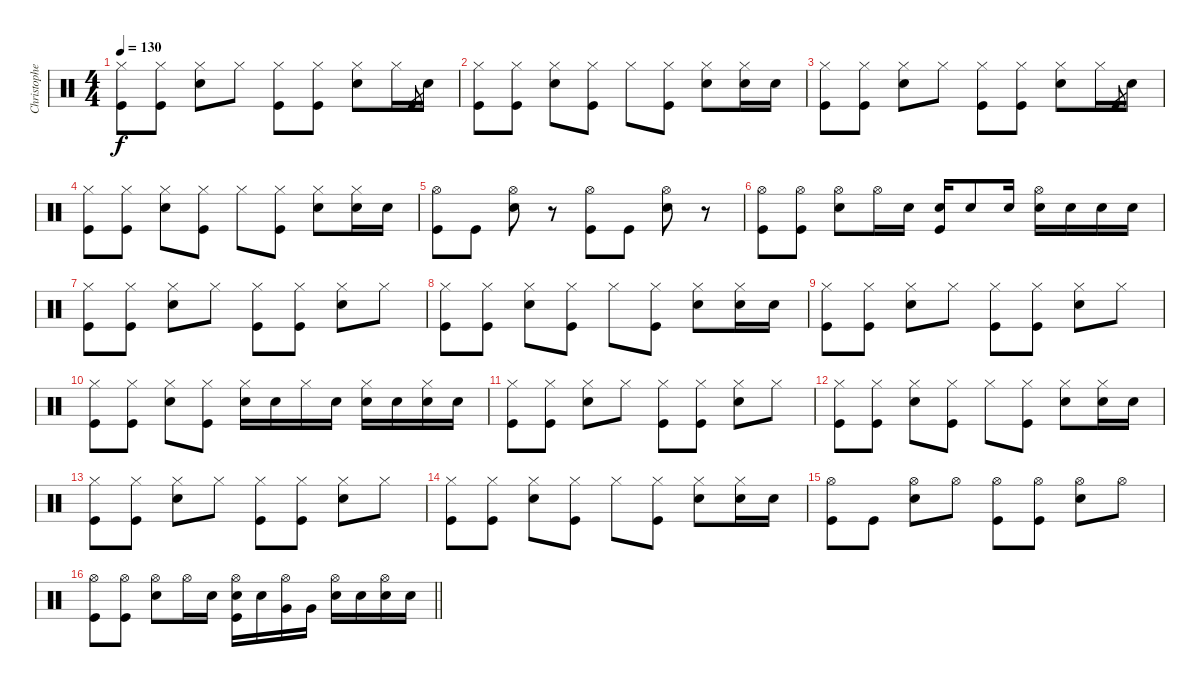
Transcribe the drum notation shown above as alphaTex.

\track ("Christopher - Drums" "Christophe") {instrument percussion}
\staff {score}
\articulation defaults
\ts (4 4)
\tempo 130
\clef neutral
\ks c
("Hi-Hat (closed)" "Kick (hit)").8{dy f} ("Hi-Hat (closed)" "Kick (hit)").8 ("Hi-Hat (closed)" "Snare (hit) 2").8 "Hi-Hat (closed)".8 ("Hi-Hat (closed)" "Kick (hit)").8 ("Hi-Hat (closed)" "Kick (hit)").8 ("Hi-Hat (closed)" "Snare (hit) 2").8 "Hi-Hat (closed)".16 "Kick (hit)".8{gr} "Snare (hit) 2".16 |
("Hi-Hat (closed)" "Kick (hit)").8 ("Hi-Hat (closed)" "Kick (hit)").8 ("Hi-Hat (closed)" "Snare (hit) 2").8 ("Hi-Hat (closed)" "Kick (hit)").8 "Hi-Hat (closed)".8 ("Hi-Hat (closed)" "Kick (hit)").8 ("Hi-Hat (closed)" "Snare (hit) 2").8 ("Hi-Hat (closed)" "Snare (hit) 2").16 "Snare (hit) 2".16 |
("Hi-Hat (closed)" "Kick (hit)").8 ("Hi-Hat (closed)" "Kick (hit)").8 ("Hi-Hat (closed)" "Snare (hit) 2").8 "Hi-Hat (closed)".8 ("Hi-Hat (closed)" "Kick (hit)").8 ("Hi-Hat (closed)" "Kick (hit)").8 ("Hi-Hat (closed)" "Snare (hit) 2").8 "Hi-Hat (closed)".16 "Kick (hit)".8{gr} "Snare (hit) 2".16 |
("Hi-Hat (closed)" "Kick (hit)").8 ("Hi-Hat (closed)" "Kick (hit)").8 ("Hi-Hat (closed)" "Snare (hit) 2").8 ("Hi-Hat (closed)" "Kick (hit)").8 "Hi-Hat (closed)".8 ("Hi-Hat (closed)" "Kick (hit)").8 ("Hi-Hat (closed)" "Snare (hit) 2").8 ("Hi-Hat (closed)" "Snare (hit) 2").16 "Snare (hit) 2".16 |
("Hi-Hat (open)" "Kick (hit)").8 "Kick (hit)".8 ("Hi-Hat (open)" "Snare (hit) 2").8 r.8 ("Hi-Hat (open)" "Kick (hit)").8 "Kick (hit)".8 ("Hi-Hat (open)" "Snare (hit) 2").8 r.8 |
("Hi-Hat (open)" "Kick (hit)").8 ("Hi-Hat (open)" "Kick (hit)").8 ("Hi-Hat (open)" "Snare (hit) 2").8 "Hi-Hat (open)".16 "Snare (hit) 2".16 ("Snare (hit) 2" "Kick (hit)").16 "Snare (hit) 2".8 "Snare (hit) 2".16 ("Hi-Hat (open)" "Snare (hit) 2").16 "Snare (hit) 2".16 "Snare (hit) 2".16 "Snare (hit) 2".16 |
("Hi-Hat (closed)" "Kick (hit)").8 ("Hi-Hat (closed)" "Kick (hit)").8 ("Hi-Hat (closed)" "Snare (hit) 2").8 "Hi-Hat (closed)".8 ("Hi-Hat (closed)" "Kick (hit)").8 ("Hi-Hat (closed)" "Kick (hit)").8 ("Hi-Hat (closed)" "Snare (hit) 2").8 "Hi-Hat (closed)".8 |
("Hi-Hat (closed)" "Kick (hit)").8 ("Hi-Hat (closed)" "Kick (hit)").8 ("Hi-Hat (closed)" "Snare (hit) 2").8 ("Hi-Hat (closed)" "Kick (hit)").8 "Hi-Hat (closed)".8 ("Hi-Hat (closed)" "Kick (hit)").8 ("Hi-Hat (closed)" "Snare (hit) 2").8 ("Hi-Hat (closed)" "Snare (hit) 2").16 "Snare (hit) 2".16 |
("Hi-Hat (closed)" "Kick (hit)").8 ("Hi-Hat (closed)" "Kick (hit)").8 ("Hi-Hat (closed)" "Snare (hit) 2").8 "Hi-Hat (closed)".8 ("Hi-Hat (closed)" "Kick (hit)").8 ("Hi-Hat (closed)" "Kick (hit)").8 ("Hi-Hat (closed)" "Snare (hit) 2").8 "Hi-Hat (closed)".8 |
("Hi-Hat (closed)" "Kick (hit)").8 ("Hi-Hat (closed)" "Kick (hit)").8 ("Hi-Hat (closed)" "Snare (hit) 2").8 ("Hi-Hat (closed)" "Kick (hit)").8 ("Hi-Hat (closed)" "Snare (hit) 2").16 "Snare (hit) 2".16 "Hi-Hat (closed)".16 "Snare (hit) 2".16 ("Hi-Hat (closed)" "Snare (hit) 2").16 "Snare (hit) 2".16 ("Hi-Hat (closed)" "Snare (hit) 2").16 "Snare (hit) 2".16 |
("Hi-Hat (closed)" "Kick (hit)").8 ("Hi-Hat (closed)" "Kick (hit)").8 ("Hi-Hat (closed)" "Snare (hit) 2").8 "Hi-Hat (closed)".8 ("Hi-Hat (closed)" "Kick (hit)").8 ("Hi-Hat (closed)" "Kick (hit)").8 ("Hi-Hat (closed)" "Snare (hit) 2").8 "Hi-Hat (closed)".8 |
("Hi-Hat (closed)" "Kick (hit)").8 ("Hi-Hat (closed)" "Kick (hit)").8 ("Hi-Hat (closed)" "Snare (hit) 2").8 ("Hi-Hat (closed)" "Kick (hit)").8 "Hi-Hat (closed)".8 ("Hi-Hat (closed)" "Kick (hit)").8 ("Hi-Hat (closed)" "Snare (hit) 2").8 ("Hi-Hat (closed)" "Snare (hit) 2").16 "Snare (hit) 2".16 |
("Hi-Hat (closed)" "Kick (hit)").8 ("Hi-Hat (closed)" "Kick (hit)").8 ("Hi-Hat (closed)" "Snare (hit) 2").8 "Hi-Hat (closed)".8 ("Hi-Hat (closed)" "Kick (hit)").8 ("Hi-Hat (closed)" "Kick (hit)").8 ("Hi-Hat (closed)" "Snare (hit) 2").8 "Hi-Hat (closed)".8 |
("Hi-Hat (closed)" "Kick (hit)").8 ("Hi-Hat (closed)" "Kick (hit)").8 ("Hi-Hat (closed)" "Snare (hit) 2").8 ("Hi-Hat (closed)" "Kick (hit)").8 "Hi-Hat (closed)".8 ("Hi-Hat (closed)" "Kick (hit)").8 ("Hi-Hat (closed)" "Snare (hit) 2").8 ("Hi-Hat (closed)" "Snare (hit) 2").16 "Snare (hit) 2".16 |
("Hi-Hat (open)" "Kick (hit)").8{volume 16} "Kick (hit)".8 ("Hi-Hat (open)" "Snare (hit) 2").8 "Hi-Hat (open)".8 ("Hi-Hat (open)" "Kick (hit)").8 ("Hi-Hat (open)" "Kick (hit)").8 ("Hi-Hat (open)" "Snare (hit) 2").8 "Hi-Hat (open)".8 |
\barLineRight lightlight
("Hi-Hat (open)" "Kick (hit)").8 ("Hi-Hat (open)" "Kick (hit)").8 ("Hi-Hat (open)" "Snare (hit) 2").8 "Hi-Hat (open)".16 "Snare (hit) 2".16 ("Hi-Hat (open)" "Snare (hit) 2" "Kick (hit)").16 "Snare (hit) 2".16 ("Hi-Hat (open)" "Very Low Tom (hit)").16 "Very Low Tom (hit)".16 ("Hi-Hat (open)" "Snare (hit) 2").16 "Snare (hit) 2".16 ("Hi-Hat (open)" "Snare (hit) 2").16 "Snare (hit) 2".16
